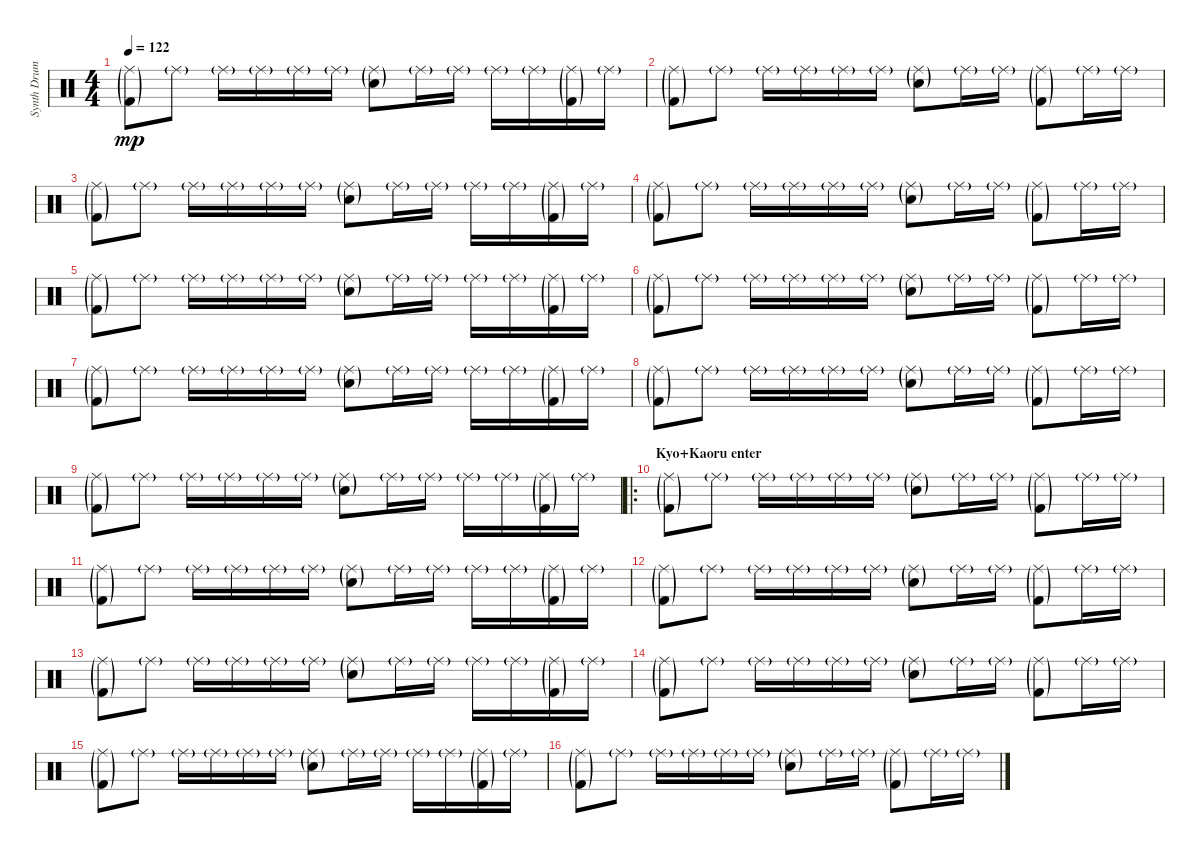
\track ("Synth Drums" "Synth Drum") {instrument percussion}
\staff {score}
\articulation defaults
\ts (4 4)
\tempo 122
\clef neutral
\ks c
("Ride (middle)"{g} "Kick (hit) 2"{g}).8{dy mp} "Ride (middle)"{g}.8 "Ride (middle)"{g}.16 "Ride (middle)"{g}.16 "Ride (middle)"{g}.16 "Ride (middle)"{g}.16 ("Snare (hit) 2"{g} "Ride (middle)"{g}).8 "Ride (middle)"{g}.16 "Ride (middle)"{g}.16 "Ride (middle)"{g}.16 "Ride (middle)"{g}.16 ("Ride (middle)"{g} "Kick (hit) 2"{g}).16 "Ride (middle)"{g}.16 |
("Ride (middle)"{g} "Kick (hit) 2"{g}).8 "Ride (middle)"{g}.8 "Ride (middle)"{g}.16 "Ride (middle)"{g}.16 "Ride (middle)"{g}.16 "Ride (middle)"{g}.16 ("Snare (hit) 2"{g} "Ride (middle)"{g}).8 "Ride (middle)"{g}.16 "Ride (middle)"{g}.16 ("Ride (middle)"{g} "Kick (hit) 2"{g}).8 "Ride (middle)"{g}.16 "Ride (middle)"{g}.16 |
("Ride (middle)"{g} "Kick (hit) 2"{g}).8 "Ride (middle)"{g}.8 "Ride (middle)"{g}.16 "Ride (middle)"{g}.16 "Ride (middle)"{g}.16 "Ride (middle)"{g}.16 ("Snare (hit) 2"{g} "Ride (middle)"{g}).8 "Ride (middle)"{g}.16 "Ride (middle)"{g}.16 "Ride (middle)"{g}.16 "Ride (middle)"{g}.16 ("Ride (middle)"{g} "Kick (hit) 2"{g}).16 "Ride (middle)"{g}.16 |
("Ride (middle)"{g} "Kick (hit) 2"{g}).8 "Ride (middle)"{g}.8 "Ride (middle)"{g}.16 "Ride (middle)"{g}.16 "Ride (middle)"{g}.16 "Ride (middle)"{g}.16 ("Snare (hit) 2"{g} "Ride (middle)"{g}).8 "Ride (middle)"{g}.16 "Ride (middle)"{g}.16 ("Ride (middle)"{g} "Kick (hit) 2"{g}).8 "Ride (middle)"{g}.16 "Ride (middle)"{g}.16 |
("Ride (middle)"{g} "Kick (hit) 2"{g}).8 "Ride (middle)"{g}.8 "Ride (middle)"{g}.16 "Ride (middle)"{g}.16 "Ride (middle)"{g}.16 "Ride (middle)"{g}.16 ("Snare (hit) 2"{g} "Ride (middle)"{g}).8 "Ride (middle)"{g}.16 "Ride (middle)"{g}.16 "Ride (middle)"{g}.16 "Ride (middle)"{g}.16 ("Ride (middle)"{g} "Kick (hit) 2"{g}).16 "Ride (middle)"{g}.16 |
("Ride (middle)"{g} "Kick (hit) 2"{g}).8 "Ride (middle)"{g}.8 "Ride (middle)"{g}.16 "Ride (middle)"{g}.16 "Ride (middle)"{g}.16 "Ride (middle)"{g}.16 ("Snare (hit) 2"{g} "Ride (middle)"{g}).8 "Ride (middle)"{g}.16 "Ride (middle)"{g}.16 ("Ride (middle)"{g} "Kick (hit) 2"{g}).8 "Ride (middle)"{g}.16 "Ride (middle)"{g}.16 |
("Ride (middle)"{g} "Kick (hit) 2"{g}).8 "Ride (middle)"{g}.8 "Ride (middle)"{g}.16 "Ride (middle)"{g}.16 "Ride (middle)"{g}.16 "Ride (middle)"{g}.16 ("Snare (hit) 2"{g} "Ride (middle)"{g}).8 "Ride (middle)"{g}.16 "Ride (middle)"{g}.16 "Ride (middle)"{g}.16 "Ride (middle)"{g}.16 ("Ride (middle)"{g} "Kick (hit) 2"{g}).16 "Ride (middle)"{g}.16 |
("Ride (middle)"{g} "Kick (hit) 2"{g}).8 "Ride (middle)"{g}.8 "Ride (middle)"{g}.16 "Ride (middle)"{g}.16 "Ride (middle)"{g}.16 "Ride (middle)"{g}.16 ("Snare (hit) 2"{g} "Ride (middle)"{g}).8 "Ride (middle)"{g}.16 "Ride (middle)"{g}.16 ("Ride (middle)"{g} "Kick (hit) 2"{g}).8 "Ride (middle)"{g}.16 "Ride (middle)"{g}.16 |
("Ride (middle)"{g} "Kick (hit) 2"{g}).8 "Ride (middle)"{g}.8 "Ride (middle)"{g}.16 "Ride (middle)"{g}.16 "Ride (middle)"{g}.16 "Ride (middle)"{g}.16 ("Snare (hit) 2"{g} "Ride (middle)"{g}).8 "Ride (middle)"{g}.16 "Ride (middle)"{g}.16 "Ride (middle)"{g}.16 "Ride (middle)"{g}.16 ("Ride (middle)"{g} "Kick (hit) 2"{g}).16 "Ride (middle)"{g}.16 |
\ro
\section ("" "Kyo+Kaoru enter")
("Ride (middle)"{g} "Kick (hit) 2"{g}).8 "Ride (middle)"{g}.8 "Ride (middle)"{g}.16 "Ride (middle)"{g}.16 "Ride (middle)"{g}.16 "Ride (middle)"{g}.16 ("Snare (hit) 2"{g} "Ride (middle)"{g}).8 "Ride (middle)"{g}.16 "Ride (middle)"{g}.16 ("Ride (middle)"{g} "Kick (hit) 2"{g}).8 "Ride (middle)"{g}.16 "Ride (middle)"{g}.16 |
("Ride (middle)"{g} "Kick (hit) 2"{g}).8 "Ride (middle)"{g}.8 "Ride (middle)"{g}.16 "Ride (middle)"{g}.16 "Ride (middle)"{g}.16 "Ride (middle)"{g}.16 ("Snare (hit) 2"{g} "Ride (middle)"{g}).8 "Ride (middle)"{g}.16 "Ride (middle)"{g}.16 "Ride (middle)"{g}.16 "Ride (middle)"{g}.16 ("Ride (middle)"{g} "Kick (hit) 2"{g}).16 "Ride (middle)"{g}.16 |
("Ride (middle)"{g} "Kick (hit) 2"{g}).8 "Ride (middle)"{g}.8 "Ride (middle)"{g}.16 "Ride (middle)"{g}.16 "Ride (middle)"{g}.16 "Ride (middle)"{g}.16 ("Snare (hit) 2"{g} "Ride (middle)"{g}).8 "Ride (middle)"{g}.16 "Ride (middle)"{g}.16 ("Ride (middle)"{g} "Kick (hit) 2"{g}).8 "Ride (middle)"{g}.16 "Ride (middle)"{g}.16 |
("Ride (middle)"{g} "Kick (hit) 2"{g}).8 "Ride (middle)"{g}.8 "Ride (middle)"{g}.16 "Ride (middle)"{g}.16 "Ride (middle)"{g}.16 "Ride (middle)"{g}.16 ("Snare (hit) 2"{g} "Ride (middle)"{g}).8 "Ride (middle)"{g}.16 "Ride (middle)"{g}.16 "Ride (middle)"{g}.16 "Ride (middle)"{g}.16 ("Ride (middle)"{g} "Kick (hit) 2"{g}).16 "Ride (middle)"{g}.16 |
("Ride (middle)"{g} "Kick (hit) 2"{g}).8 "Ride (middle)"{g}.8 "Ride (middle)"{g}.16 "Ride (middle)"{g}.16 "Ride (middle)"{g}.16 "Ride (middle)"{g}.16 ("Snare (hit) 2"{g} "Ride (middle)"{g}).8 "Ride (middle)"{g}.16 "Ride (middle)"{g}.16 ("Ride (middle)"{g} "Kick (hit) 2"{g}).8 "Ride (middle)"{g}.16 "Ride (middle)"{g}.16 |
("Ride (middle)"{g} "Kick (hit) 2"{g}).8 "Ride (middle)"{g}.8 "Ride (middle)"{g}.16 "Ride (middle)"{g}.16 "Ride (middle)"{g}.16 "Ride (middle)"{g}.16 ("Snare (hit) 2"{g} "Ride (middle)"{g}).8 "Ride (middle)"{g}.16 "Ride (middle)"{g}.16 "Ride (middle)"{g}.16 "Ride (middle)"{g}.16 ("Ride (middle)"{g} "Kick (hit) 2"{g}).16 "Ride (middle)"{g}.16 |
("Ride (middle)"{g} "Kick (hit) 2"{g}).8 "Ride (middle)"{g}.8 "Ride (middle)"{g}.16 "Ride (middle)"{g}.16 "Ride (middle)"{g}.16 "Ride (middle)"{g}.16 ("Snare (hit) 2"{g} "Ride (middle)"{g}).8 "Ride (middle)"{g}.16 "Ride (middle)"{g}.16 ("Ride (middle)"{g} "Kick (hit) 2"{g}).8 "Ride (middle)"{g}.16 "Ride (middle)"{g}.16
